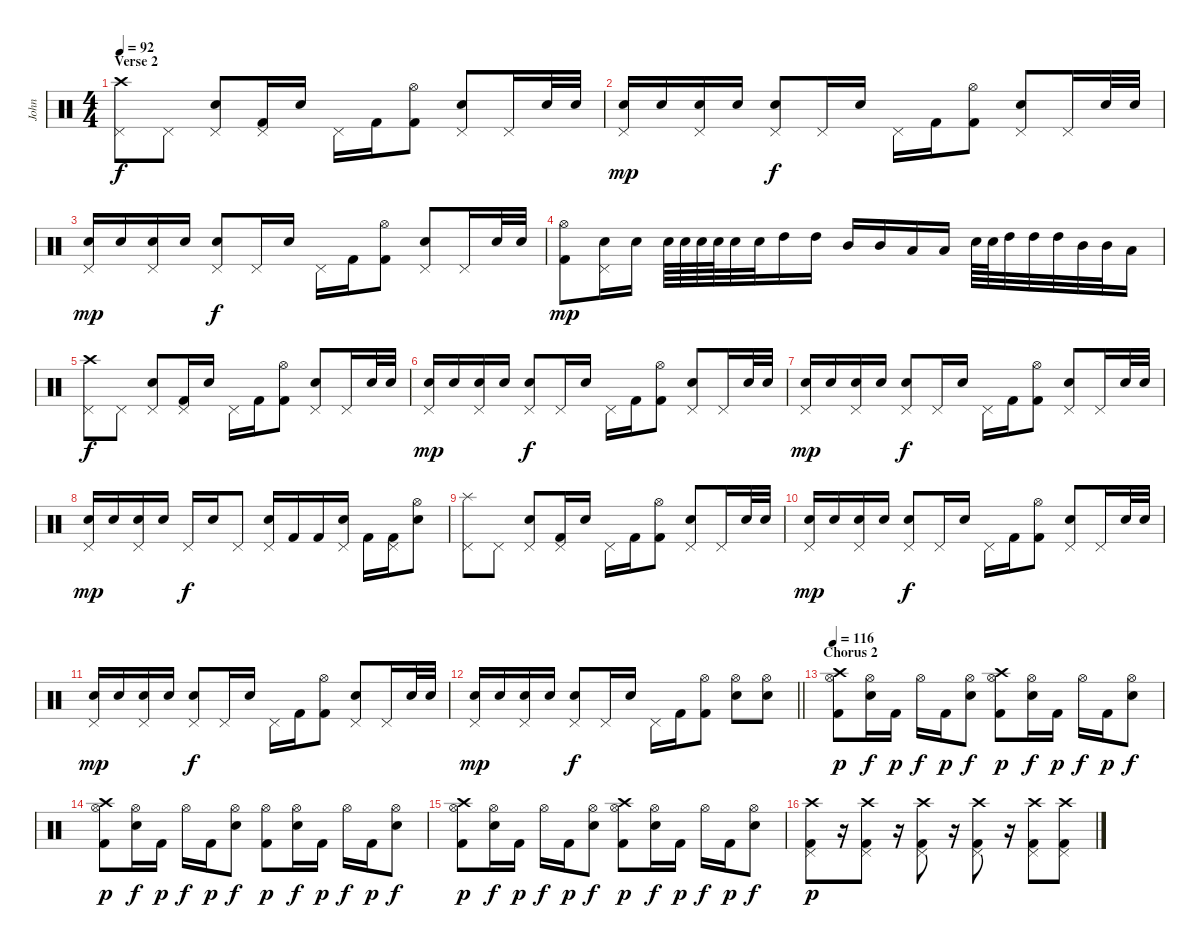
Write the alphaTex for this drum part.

\track ("John" "John") {instrument percussion}
\staff {score}
\articulation defaults
\ts (4 4)
\section ("" "Verse 2")
\tempo 92
\clef neutral
\ks c
("Crash high (hit)" "Pedal Hi-Hat (hit)").8{dy f} "Pedal Hi-Hat (hit)".8 ("Snare (hit) 2" "Pedal Hi-Hat (hit)").8 ("Kick (hit) 2" "Pedal Hi-Hat (hit)").16 "Snare (hit) 2".16 "Pedal Hi-Hat (hit)".16 "Kick (hit) 2".16 ("Kick (hit) 2" "Hi-Hat (open)").8 ("Snare (hit) 2" "Pedal Hi-Hat (hit)").8 "Pedal Hi-Hat (hit)".16 "Snare (hit) 2".32 "Snare (hit) 2".32 |
("Snare (hit) 2" "Pedal Hi-Hat (hit)").16{dy mp} "Snare (hit) 2".16 ("Snare (hit) 2" "Pedal Hi-Hat (hit)").16 "Snare (hit) 2".16 ("Snare (hit) 2" "Pedal Hi-Hat (hit)").8{dy f} "Pedal Hi-Hat (hit)".16 "Snare (hit) 2".16 "Pedal Hi-Hat (hit)".16 "Kick (hit) 2".16 ("Kick (hit) 2" "Hi-Hat (open)").8 ("Snare (hit) 2" "Pedal Hi-Hat (hit)").8 "Pedal Hi-Hat (hit)".16 "Snare (hit) 2".32 "Snare (hit) 2".32 |
("Snare (hit) 2" "Pedal Hi-Hat (hit)").16{dy mp} "Snare (hit) 2".16 ("Snare (hit) 2" "Pedal Hi-Hat (hit)").16 "Snare (hit) 2".16 ("Snare (hit) 2" "Pedal Hi-Hat (hit)").8{dy f} "Pedal Hi-Hat (hit)".16 "Snare (hit) 2".16 "Pedal Hi-Hat (hit)".16 "Kick (hit) 2".16 ("Kick (hit) 2" "Hi-Hat (open)").8 ("Snare (hit) 2" "Pedal Hi-Hat (hit)").8 "Pedal Hi-Hat (hit)".16 "Snare (hit) 2".32 "Snare (hit) 2".32 |
("Kick (hit) 2" "Hi-Hat (open)").8{dy mp} ("Snare (hit) 2" "Pedal Hi-Hat (hit)").16 "Snare (hit) 2".16 "Snare (hit) 2".64 "Snare (hit) 2".64 "Snare (hit) 2".64 "Snare (hit) 2".64 "Snare (hit) 2".32 "Snare (hit) 2".32 "High Tom (hit)".16 "High Tom (hit)".16 "Mid Tom (hit)".16 "Mid Tom (hit)".16 "Low Tom (hit)".16 "Low Tom (hit)".16 "Snare (hit) 2".64 "Snare (hit) 2".64 "High Tom (hit)".32 "High Tom (hit)".32 "High Tom (hit)".32 "Mid Tom (hit)".32 "Mid Tom (hit)".32 "Low Tom (hit)".16 |
("Crash high (hit)" "Pedal Hi-Hat (hit)").8{dy f} "Pedal Hi-Hat (hit)".8 ("Snare (hit) 2" "Pedal Hi-Hat (hit)").8 ("Kick (hit) 2" "Pedal Hi-Hat (hit)").16 "Snare (hit) 2".16 "Pedal Hi-Hat (hit)".16 "Kick (hit) 2".16 ("Kick (hit) 2" "Hi-Hat (open)").8 ("Snare (hit) 2" "Pedal Hi-Hat (hit)").8 "Pedal Hi-Hat (hit)".16 "Snare (hit) 2".32 "Snare (hit) 2".32 |
("Snare (hit) 2" "Pedal Hi-Hat (hit)").16{dy mp} "Snare (hit) 2".16 ("Snare (hit) 2" "Pedal Hi-Hat (hit)").16 "Snare (hit) 2".16 ("Snare (hit) 2" "Pedal Hi-Hat (hit)").8{dy f} "Pedal Hi-Hat (hit)".16 "Snare (hit) 2".16 "Pedal Hi-Hat (hit)".16 "Kick (hit) 2".16 ("Kick (hit) 2" "Hi-Hat (open)").8 ("Snare (hit) 2" "Pedal Hi-Hat (hit)").8 "Pedal Hi-Hat (hit)".16 "Snare (hit) 2".32 "Snare (hit) 2".32 |
("Snare (hit) 2" "Pedal Hi-Hat (hit)").16{dy mp} "Snare (hit) 2".16 ("Snare (hit) 2" "Pedal Hi-Hat (hit)").16 "Snare (hit) 2".16 ("Snare (hit) 2" "Pedal Hi-Hat (hit)").8{dy f} "Pedal Hi-Hat (hit)".16 "Snare (hit) 2".16 "Pedal Hi-Hat (hit)".16 "Kick (hit) 2".16 ("Kick (hit) 2" "Hi-Hat (open)").8 ("Snare (hit) 2" "Pedal Hi-Hat (hit)").8 "Pedal Hi-Hat (hit)".16 "Snare (hit) 2".32 "Snare (hit) 2".32 |
("Snare (hit) 2" "Pedal Hi-Hat (hit)").16{dy mp} "Snare (hit) 2".16 ("Snare (hit) 2" "Pedal Hi-Hat (hit)").16 "Snare (hit) 2".16 "Pedal Hi-Hat (hit)".16{dy f} "Snare (hit) 2".16 "Pedal Hi-Hat (hit)".8 ("Snare (hit) 2" "Pedal Hi-Hat (hit)").16 "Kick (hit) 2".16 "Kick (hit) 2".16 ("Snare (hit) 2" "Pedal Hi-Hat (hit)").16 "Kick (hit) 2".16 ("Kick (hit) 2" "Pedal Hi-Hat (hit)").16 ("Snare (hit) 2" "Hi-Hat (open)").8 |
("Splash (hit)" "Pedal Hi-Hat (hit)").8 "Pedal Hi-Hat (hit)".8 ("Snare (hit) 2" "Pedal Hi-Hat (hit)").8 ("Kick (hit) 2" "Pedal Hi-Hat (hit)").16 "Snare (hit) 2".16 "Pedal Hi-Hat (hit)".16 "Kick (hit) 2".16 ("Kick (hit) 2" "Hi-Hat (open)").8 ("Snare (hit) 2" "Pedal Hi-Hat (hit)").8 "Pedal Hi-Hat (hit)".16 "Snare (hit) 2".32 "Snare (hit) 2".32 |
("Snare (hit) 2" "Pedal Hi-Hat (hit)").16{dy mp} "Snare (hit) 2".16 ("Snare (hit) 2" "Pedal Hi-Hat (hit)").16 "Snare (hit) 2".16 ("Snare (hit) 2" "Pedal Hi-Hat (hit)").8{dy f} "Pedal Hi-Hat (hit)".16 "Snare (hit) 2".16 "Pedal Hi-Hat (hit)".16 "Kick (hit) 2".16 ("Kick (hit) 2" "Hi-Hat (open)").8 ("Snare (hit) 2" "Pedal Hi-Hat (hit)").8 "Pedal Hi-Hat (hit)".16 "Snare (hit) 2".32 "Snare (hit) 2".32 |
("Snare (hit) 2" "Pedal Hi-Hat (hit)").16{dy mp} "Snare (hit) 2".16 ("Snare (hit) 2" "Pedal Hi-Hat (hit)").16 "Snare (hit) 2".16 ("Snare (hit) 2" "Pedal Hi-Hat (hit)").8{dy f} "Pedal Hi-Hat (hit)".16 "Snare (hit) 2".16 "Pedal Hi-Hat (hit)".16 "Kick (hit) 2".16 ("Kick (hit) 2" "Hi-Hat (open)").8 ("Snare (hit) 2" "Pedal Hi-Hat (hit)").8 "Pedal Hi-Hat (hit)".16 "Snare (hit) 2".32 "Snare (hit) 2".32 |
\barLineRight lightlight
("Snare (hit) 2" "Pedal Hi-Hat (hit)").16{dy mp} "Snare (hit) 2".16 ("Snare (hit) 2" "Pedal Hi-Hat (hit)").16 "Snare (hit) 2".16 ("Snare (hit) 2" "Pedal Hi-Hat (hit)").8{dy f} "Pedal Hi-Hat (hit)".16 "Snare (hit) 2".16 "Pedal Hi-Hat (hit)".16 "Kick (hit) 2".16 ("Kick (hit) 2" "Hi-Hat (open)").8 ("Snare (hit) 2" "Hi-Hat (open)").8 ("Snare (hit) 2" "Hi-Hat (open)").8 |
\section ("" "Chorus 2")
\tempo 116
("Crash high (hit)" "Kick (hit) 2" "Hi-Hat (open)").8{dy p} ("Snare (hit) 2" "Hi-Hat (open)").16{dy f} "Kick (hit) 2".16{dy p} "Hi-Hat (open)".16{dy f} "Kick (hit) 2".16{dy p} ("Snare (hit) 2" "Hi-Hat (open)").8{dy f} ("Crash high (hit)" "Kick (hit) 2" "Hi-Hat (open)").8{dy p} ("Snare (hit) 2" "Hi-Hat (open)").16{dy f} "Kick (hit) 2".16{dy p} "Hi-Hat (open)".16{dy f} "Kick (hit) 2".16{dy p} ("Snare (hit) 2" "Hi-Hat (open)").8{dy f} |
("Crash high (hit)" "Kick (hit) 2" "Hi-Hat (open)").8{dy p} ("Snare (hit) 2" "Hi-Hat (open)").16{dy f} "Kick (hit) 2".16{dy p} "Hi-Hat (open)".16{dy f} "Kick (hit) 2".16{dy p} ("Snare (hit) 2" "Hi-Hat (open)").8{dy f} ("Kick (hit) 2" "Hi-Hat (open)").8{dy p} ("Snare (hit) 2" "Hi-Hat (open)").16{dy f} "Kick (hit) 2".16{dy p} "Hi-Hat (open)".16{dy f} "Kick (hit) 2".16{dy p} ("Snare (hit) 2" "Hi-Hat (open)").8{dy f} |
("Crash high (hit)" "Kick (hit) 2" "Hi-Hat (open)").8{dy p} ("Snare (hit) 2" "Hi-Hat (open)").16{dy f} "Kick (hit) 2".16{dy p} "Hi-Hat (open)".16{dy f} "Kick (hit) 2".16{dy p} ("Snare (hit) 2" "Hi-Hat (open)").8{dy f} ("Crash high (hit)" "Kick (hit) 2" "Hi-Hat (open)").8{dy p} ("Snare (hit) 2" "Hi-Hat (open)").16{dy f} "Kick (hit) 2".16{dy p} "Hi-Hat (open)".16{dy f} "Kick (hit) 2".16{dy p} ("Snare (hit) 2" "Hi-Hat (open)").8{dy f} |
("Crash high (hit)" "Kick (hit) 2" "Pedal Hi-Hat (hit)").8{dy p} r.16 ("Crash high (hit)" "Kick (hit) 2" "Pedal Hi-Hat (hit)").8 r.16 ("Crash high (hit)" "Kick (hit) 2" "Pedal Hi-Hat (hit)").8 r.16 ("Crash high (hit)" "Kick (hit) 2" "Pedal Hi-Hat (hit)").8 r.16 ("Crash high (hit)" "Kick (hit) 2" "Pedal Hi-Hat (hit)").8 ("Crash high (hit)" "Kick (hit) 2" "Pedal Hi-Hat (hit)").8
